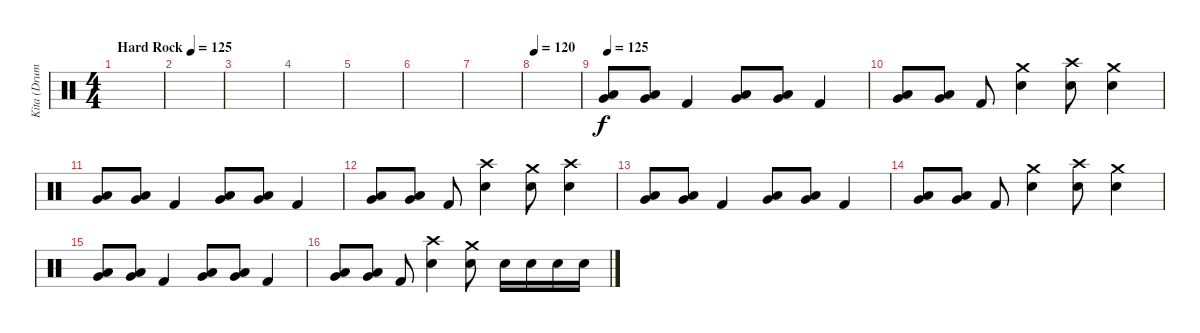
\track ("Kita (Drums)" "Kita (Drum") {instrument percussion}
\staff {score}
\articulation defaults
\ts (4 4)
\tempo (125 "Hard Rock")
\clef neutral
\ks c
|
|
|
|
|
|
|
\tempo 120
|
\tempo 125
("Very Low Tom (hit)" "Low Tom (hit)").8{bd 120} ("Very Low Tom (hit)" "Low Tom (hit)").8{bd 120} "Kick (hit) 2".4 ("Low Floor Tom (hit)" "Very Low Tom (hit)").8{bd 120} ("Low Floor Tom (hit)" "Very Low Tom (hit)").8{bd 120} "Kick (hit) 2".4 |
("Very Low Tom (hit)" "Low Tom (hit)").8{bd 120} ("Very Low Tom (hit)" "Low Tom (hit)").8{bd 120} "Kick (hit) 2".8 ("Crash medium (hit)" "Electric Snare (hit)").4 ("Crash high (hit)" "Electric Snare (hit)").8 ("Crash medium (hit)" "Electric Snare (hit)").4 |
("Very Low Tom (hit)" "Low Tom (hit)").8{bd 120} ("Very Low Tom (hit)" "Low Tom (hit)").8{bd 120} "Kick (hit) 2".4 ("Low Floor Tom (hit)" "Very Low Tom (hit)").8{bd 120} ("Low Floor Tom (hit)" "Very Low Tom (hit)").8{bd 120} "Kick (hit) 2".4 |
("Very Low Tom (hit)" "Low Tom (hit)").8{bd 120} ("Very Low Tom (hit)" "Low Tom (hit)").8{bd 120} "Kick (hit) 2".8 ("Crash high (hit)" "Electric Snare (hit)").4 ("Crash medium (hit)" "Electric Snare (hit)").8 ("Crash high (hit)" "Electric Snare (hit)").4 |
("Very Low Tom (hit)" "Low Tom (hit)").8{bd 120} ("Very Low Tom (hit)" "Low Tom (hit)").8{bd 120} "Kick (hit) 2".4 ("Low Floor Tom (hit)" "Very Low Tom (hit)").8{bd 120} ("Low Floor Tom (hit)" "Very Low Tom (hit)").8{bd 120} "Kick (hit) 2".4 |
("Very Low Tom (hit)" "Low Tom (hit)").8{bd 120} ("Very Low Tom (hit)" "Low Tom (hit)").8{bd 120} "Kick (hit) 2".8 ("Crash medium (hit)" "Electric Snare (hit)").4 ("Crash high (hit)" "Electric Snare (hit)").8 ("Crash medium (hit)" "Electric Snare (hit)").4 |
("Very Low Tom (hit)" "Low Tom (hit)").8{bd 120} ("Very Low Tom (hit)" "Low Tom (hit)").8{bd 120} "Kick (hit) 2".4 ("Low Floor Tom (hit)" "Very Low Tom (hit)").8{bd 120} ("Low Floor Tom (hit)" "Very Low Tom (hit)").8{bd 120} "Kick (hit) 2".4 |
("Very Low Tom (hit)" "Low Tom (hit)").8{bd 120} ("Very Low Tom (hit)" "Low Tom (hit)").8{bd 120} "Kick (hit) 2".8 ("Crash high (hit)" "Electric Snare (hit)").4 ("Crash medium (hit)" "Electric Snare (hit)").8 "Electric Snare (hit)".16 "Electric Snare (hit)".16 "Electric Snare (hit)".16 "Electric Snare (hit)".16
